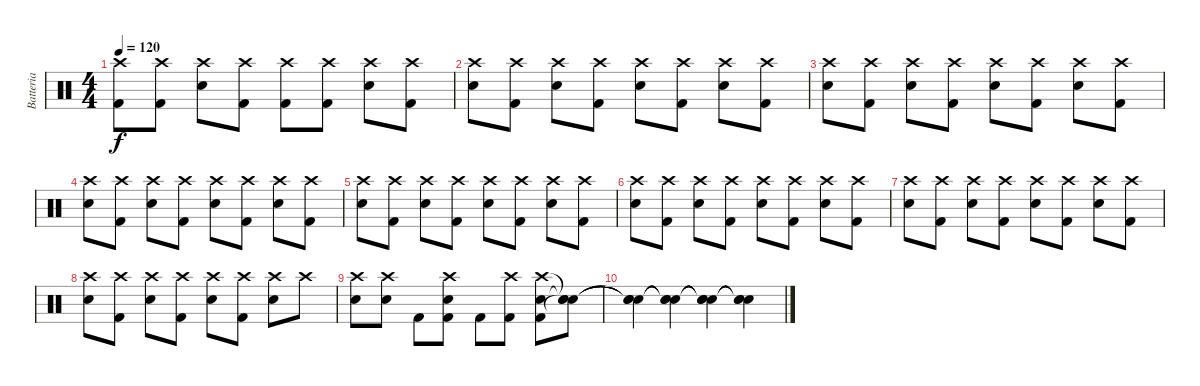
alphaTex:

\track ("Batteria" "Batteria") {instrument percussion}
\staff {score}
\articulation defaults
\ts (4 4)
\tempo 120
\clef neutral
\ks c
("Crash high (hit)" "Kick (hit) 2").8{dy f} ("Crash high (hit)" "Kick (hit) 2").8 ("Snare (hit) 2" "Crash high (hit)").8 ("Crash high (hit)" "Kick (hit) 2").8 ("Kick (hit) 2" "Crash high (hit)").8 ("Crash high (hit)" "Kick (hit) 2").8 ("Snare (hit) 2" "Crash high (hit)").8 ("Crash high (hit)" "Kick (hit) 2").8 |
("Crash high (hit)" "Snare (hit) 2").8 ("Crash high (hit)" "Kick (hit) 2").8 ("Crash high (hit)" "Snare (hit) 2").8 ("Crash high (hit)" "Kick (hit) 2").8 ("Crash high (hit)" "Snare (hit) 2").8 ("Crash high (hit)" "Kick (hit) 2").8 ("Crash high (hit)" "Snare (hit) 2").8 ("Crash high (hit)" "Kick (hit) 2").8 |
("Crash high (hit)" "Snare (hit) 2").8 ("Crash high (hit)" "Kick (hit) 2").8 ("Crash high (hit)" "Snare (hit) 2").8 ("Crash high (hit)" "Kick (hit) 2").8 ("Crash high (hit)" "Snare (hit) 2").8 ("Crash high (hit)" "Kick (hit) 2").8 ("Crash high (hit)" "Snare (hit) 2").8 ("Crash high (hit)" "Kick (hit) 2").8 |
("Crash high (hit)" "Snare (hit) 2").8 ("Crash high (hit)" "Kick (hit) 2").8 ("Crash high (hit)" "Snare (hit) 2").8 ("Crash high (hit)" "Kick (hit) 2").8 ("Crash high (hit)" "Snare (hit) 2").8 ("Crash high (hit)" "Kick (hit) 2").8 ("Crash high (hit)" "Snare (hit) 2").8 ("Crash high (hit)" "Kick (hit) 2").8 |
("Crash high (hit)" "Snare (hit) 2").8 ("Crash high (hit)" "Kick (hit) 2").8 ("Crash high (hit)" "Snare (hit) 2").8 ("Crash high (hit)" "Kick (hit) 2").8 ("Crash high (hit)" "Snare (hit) 2").8 ("Crash high (hit)" "Kick (hit) 2").8 ("Crash high (hit)" "Snare (hit) 2").8 ("Crash high (hit)" "Kick (hit) 2").8 |
("Crash high (hit)" "Snare (hit) 2").8 ("Crash high (hit)" "Kick (hit) 2").8 ("Crash high (hit)" "Snare (hit) 2").8 ("Crash high (hit)" "Kick (hit) 2").8 ("Crash high (hit)" "Snare (hit) 2").8 ("Crash high (hit)" "Kick (hit) 2").8 ("Crash high (hit)" "Snare (hit) 2").8 ("Crash high (hit)" "Kick (hit) 2").8 |
("Crash high (hit)" "Snare (hit) 2").8 ("Crash high (hit)" "Kick (hit) 2").8 ("Crash high (hit)" "Snare (hit) 2").8 ("Crash high (hit)" "Kick (hit) 2").8 ("Crash high (hit)" "Snare (hit) 2").8 ("Crash high (hit)" "Kick (hit) 2").8 ("Crash high (hit)" "Snare (hit) 2").8 ("Crash high (hit)" "Kick (hit) 2").8 |
("Crash high (hit)" "Snare (hit) 2").8 ("Crash high (hit)" "Kick (hit) 2").8 ("Crash high (hit)" "Snare (hit) 2").8 ("Crash high (hit)" "Kick (hit) 2").8 ("Crash high (hit)" "Snare (hit) 2").8 ("Crash high (hit)" "Kick (hit) 2").8 ("Snare (hit) 2" "Crash high (hit)").8 "Crash high (hit)".8 |
("Snare (hit) 2" "Crash high (hit)").8 ("Snare (hit) 2" "Crash high (hit)").8 "Kick (hit) 2".8 ("Kick (hit) 2" "Snare (hit) 2" "Crash high (hit)").8 "Kick (hit) 2".8 ("Kick (hit) 2" "Crash high (hit)").8 ("Kick (hit) 2" "Snare (hit) 2" "Crash high (hit)").8 ("Snare (hit)"{t} "Snare (hit)"{t} "Snare (hit)"{t}).8 |
("Snare (hit)"{t} "Snare (hit)"{t} "Snare (hit)"{t}).4 ("Snare (hit)"{t} "Snare (hit)"{t} "Snare (hit)"{t}).4 ("Snare (hit)"{t} "Snare (hit)"{t} "Snare (hit)"{t}).4 ("Snare (hit)"{t} "Snare (hit)"{t} "Snare (hit)"{t}).4
